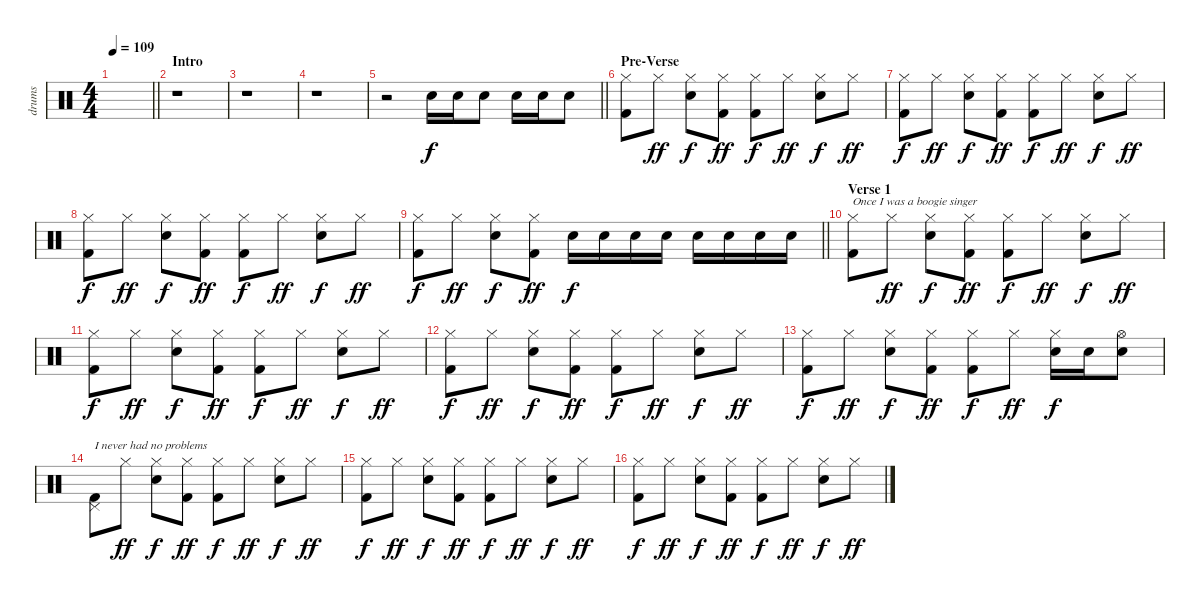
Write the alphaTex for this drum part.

\track ("drums" "drums") {instrument percussion}
\staff {score}
\articulation defaults
\ts (4 4)
\tempo 109
\clef neutral
\barLineRight lightlight
\ks c
|
\section ("" "Intro")
\ks aminor
r.1 |
r.1 |
r.1 |
\barLineRight lightlight
r.2 "Snare (hit) 2".16 "Snare (hit) 2".16 "Snare (hit) 2".8 "Snare (hit) 2".16 "Snare (hit) 2".16 "Snare (hit) 2".8 |
\section ("" "Pre-Verse")
("Hi-Hat (closed)" "Kick (hit) 2").8 "Hi-Hat (closed)".8{dy ff} ("Hi-Hat (closed)" "Snare (hit) 2").8{dy f} ("Hi-Hat (closed)" "Kick (hit) 2").8{dy ff} ("Hi-Hat (closed)" "Kick (hit) 2").8{dy f} "Hi-Hat (closed)".8{dy ff} ("Hi-Hat (closed)" "Snare (hit) 2").8{dy f} "Hi-Hat (closed)".8{dy ff} |
("Hi-Hat (closed)" "Kick (hit) 2").8{dy f} "Hi-Hat (closed)".8{dy ff} ("Hi-Hat (closed)" "Snare (hit) 2").8{dy f} ("Hi-Hat (closed)" "Kick (hit) 2").8{dy ff} ("Hi-Hat (closed)" "Kick (hit) 2").8{dy f} "Hi-Hat (closed)".8{dy ff} ("Hi-Hat (closed)" "Snare (hit) 2").8{dy f} "Hi-Hat (closed)".8{dy ff} |
("Hi-Hat (closed)" "Kick (hit) 2").8{dy f} "Hi-Hat (closed)".8{dy ff} ("Hi-Hat (closed)" "Snare (hit) 2").8{dy f} ("Hi-Hat (closed)" "Kick (hit) 2").8{dy ff} ("Hi-Hat (closed)" "Kick (hit) 2").8{dy f} "Hi-Hat (closed)".8{dy ff} ("Hi-Hat (closed)" "Snare (hit) 2").8{dy f} "Hi-Hat (closed)".8{dy ff} |
\barLineRight lightlight
("Hi-Hat (closed)" "Kick (hit) 2").8{dy f} "Hi-Hat (closed)".8{dy ff} ("Hi-Hat (closed)" "Snare (hit) 2").8{dy f} ("Hi-Hat (closed)" "Kick (hit) 2").8{dy ff} "Snare (hit) 2".16{dy f} "Snare (hit) 2".16 "Snare (hit) 2".16 "Snare (hit) 2".16 "Snare (hit) 2".16 "Snare (hit) 2".16 "Snare (hit) 2".16 "Snare (hit) 2".16 |
\section ("" "Verse 1")
("Hi-Hat (closed)" "Kick (hit) 2").8{txt "Once I was a boogie singer"} "Hi-Hat (closed)".8{dy ff} ("Hi-Hat (closed)" "Snare (hit) 2").8{dy f} ("Hi-Hat (closed)" "Kick (hit) 2").8{dy ff} ("Hi-Hat (closed)" "Kick (hit) 2").8{dy f} "Hi-Hat (closed)".8{dy ff} ("Hi-Hat (closed)" "Snare (hit) 2").8{dy f} "Hi-Hat (closed)".8{dy ff} |
("Hi-Hat (closed)" "Kick (hit) 2").8{dy f} "Hi-Hat (closed)".8{dy ff} ("Hi-Hat (closed)" "Snare (hit) 2").8{dy f} ("Hi-Hat (closed)" "Kick (hit) 2").8{dy ff} ("Hi-Hat (closed)" "Kick (hit) 2").8{dy f} "Hi-Hat (closed)".8{dy ff} ("Hi-Hat (closed)" "Snare (hit) 2").8{dy f} "Hi-Hat (closed)".8{dy ff} |
("Hi-Hat (closed)" "Kick (hit) 2").8{dy f} "Hi-Hat (closed)".8{dy ff} ("Hi-Hat (closed)" "Snare (hit) 2").8{dy f} ("Hi-Hat (closed)" "Kick (hit) 2").8{dy ff} ("Hi-Hat (closed)" "Kick (hit) 2").8{dy f} "Hi-Hat (closed)".8{dy ff} ("Hi-Hat (closed)" "Snare (hit) 2").8{dy f} "Hi-Hat (closed)".8{dy ff} |
("Hi-Hat (closed)" "Kick (hit) 2").8{dy f} "Hi-Hat (closed)".8{dy ff} ("Hi-Hat (closed)" "Snare (hit) 2").8{dy f} ("Hi-Hat (closed)" "Kick (hit) 2").8{dy ff} ("Hi-Hat (closed)" "Kick (hit) 2").8{dy f} "Hi-Hat (closed)".8{dy ff} ("Hi-Hat (closed)" "Snare (hit) 2").16{dy f} "Snare (hit) 2".16 ("Hi-Hat (open)" "Snare (hit) 2").8 |
("Pedal Hi-Hat (hit)" "Kick (hit) 2").8{txt "I never had no problems"} "Hi-Hat (closed)".8{dy ff} ("Hi-Hat (closed)" "Snare (hit) 2").8{dy f} ("Hi-Hat (closed)" "Kick (hit) 2").8{dy ff} ("Hi-Hat (closed)" "Kick (hit) 2").8{dy f} "Hi-Hat (closed)".8{dy ff} ("Hi-Hat (closed)" "Snare (hit) 2").8{dy f} "Hi-Hat (closed)".8{dy ff} |
("Hi-Hat (closed)" "Kick (hit) 2").8{dy f} "Hi-Hat (closed)".8{dy ff} ("Hi-Hat (closed)" "Snare (hit) 2").8{dy f} ("Hi-Hat (closed)" "Kick (hit) 2").8{dy ff} ("Hi-Hat (closed)" "Kick (hit) 2").8{dy f} "Hi-Hat (closed)".8{dy ff} ("Hi-Hat (closed)" "Snare (hit) 2").8{dy f} "Hi-Hat (closed)".8{dy ff} |
("Hi-Hat (closed)" "Kick (hit) 2").8{dy f} "Hi-Hat (closed)".8{dy ff} ("Hi-Hat (closed)" "Snare (hit) 2").8{dy f} ("Hi-Hat (closed)" "Kick (hit) 2").8{dy ff} ("Hi-Hat (closed)" "Kick (hit) 2").8{dy f} "Hi-Hat (closed)".8{dy ff} ("Hi-Hat (closed)" "Snare (hit) 2").8{dy f} "Hi-Hat (closed)".8{dy ff}
